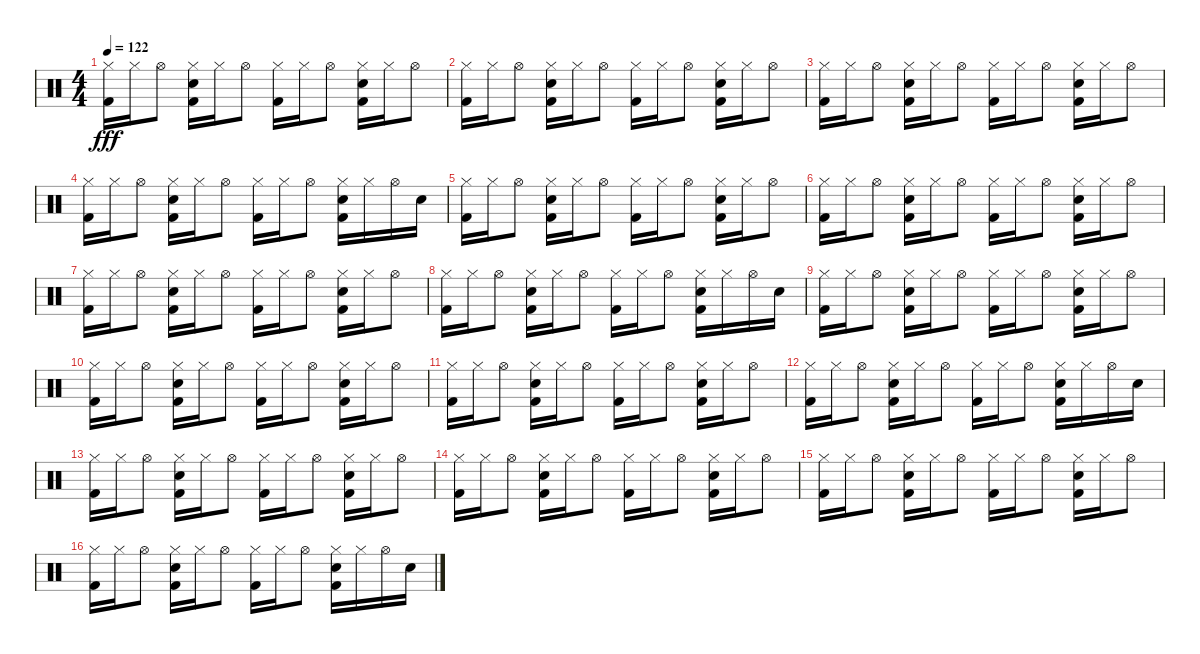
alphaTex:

\track "" {mute instrument percussion}
\staff {score}
\articulation defaults
\ts (4 4)
\tempo 122
\clef neutral
\ks c
("Kick (hit) 2" "Hi-Hat (closed)").16{dy fff} "Hi-Hat (closed)".16 "Hi-Hat (open)".8 ("Kick (hit) 2" "Snare (hit) 2" "Hi-Hat (closed)").16 "Hi-Hat (closed)".16 "Hi-Hat (open)".8 ("Kick (hit) 2" "Hi-Hat (closed)").16 "Hi-Hat (closed)".16 "Hi-Hat (open)".8 ("Kick (hit) 2" "Snare (hit) 2" "Hi-Hat (closed)").16 "Hi-Hat (closed)".16 "Hi-Hat (open)".8 |
("Kick (hit) 2" "Hi-Hat (closed)").16 "Hi-Hat (closed)".16 "Hi-Hat (open)".8 ("Kick (hit) 2" "Snare (hit) 2" "Hi-Hat (closed)").16 "Hi-Hat (closed)".16 "Hi-Hat (open)".8 ("Kick (hit) 2" "Hi-Hat (closed)").16 "Hi-Hat (closed)".16 "Hi-Hat (open)".8 ("Kick (hit) 2" "Snare (hit) 2" "Hi-Hat (closed)").16 "Hi-Hat (closed)".16 "Hi-Hat (open)".8 |
("Kick (hit) 2" "Hi-Hat (closed)").16 "Hi-Hat (closed)".16 "Hi-Hat (open)".8 ("Kick (hit) 2" "Snare (hit) 2" "Hi-Hat (closed)").16 "Hi-Hat (closed)".16 "Hi-Hat (open)".8 ("Kick (hit) 2" "Hi-Hat (closed)").16 "Hi-Hat (closed)".16 "Hi-Hat (open)".8 ("Kick (hit) 2" "Snare (hit) 2" "Hi-Hat (closed)").16 "Hi-Hat (closed)".16 "Hi-Hat (open)".8 |
("Kick (hit) 2" "Hi-Hat (closed)").16 "Hi-Hat (closed)".16 "Hi-Hat (open)".8 ("Kick (hit) 2" "Snare (hit) 2" "Hi-Hat (closed)").16 "Hi-Hat (closed)".16 "Hi-Hat (open)".8 ("Kick (hit) 2" "Hi-Hat (closed)").16 "Hi-Hat (closed)".16 "Hi-Hat (open)".8 ("Kick (hit) 2" "Snare (hit) 2" "Hi-Hat (closed)").16 "Hi-Hat (closed)".16 "Hi-Hat (open)".16 "Snare (hit) 2".16 |
("Kick (hit) 2" "Hi-Hat (closed)").16 "Hi-Hat (closed)".16 "Hi-Hat (open)".8 ("Kick (hit) 2" "Snare (hit) 2" "Hi-Hat (closed)").16 "Hi-Hat (closed)".16 "Hi-Hat (open)".8 ("Kick (hit) 2" "Hi-Hat (closed)").16 "Hi-Hat (closed)".16 "Hi-Hat (open)".8 ("Kick (hit) 2" "Snare (hit) 2" "Hi-Hat (closed)").16 "Hi-Hat (closed)".16 "Hi-Hat (open)".8 |
("Kick (hit) 2" "Hi-Hat (closed)").16 "Hi-Hat (closed)".16 "Hi-Hat (open)".8 ("Kick (hit) 2" "Snare (hit) 2" "Hi-Hat (closed)").16 "Hi-Hat (closed)".16 "Hi-Hat (open)".8 ("Kick (hit) 2" "Hi-Hat (closed)").16 "Hi-Hat (closed)".16 "Hi-Hat (open)".8 ("Kick (hit) 2" "Snare (hit) 2" "Hi-Hat (closed)").16 "Hi-Hat (closed)".16 "Hi-Hat (open)".8 |
("Kick (hit) 2" "Hi-Hat (closed)").16 "Hi-Hat (closed)".16 "Hi-Hat (open)".8 ("Kick (hit) 2" "Snare (hit) 2" "Hi-Hat (closed)").16 "Hi-Hat (closed)".16 "Hi-Hat (open)".8 ("Kick (hit) 2" "Hi-Hat (closed)").16 "Hi-Hat (closed)".16 "Hi-Hat (open)".8 ("Kick (hit) 2" "Snare (hit) 2" "Hi-Hat (closed)").16 "Hi-Hat (closed)".16 "Hi-Hat (open)".8 |
("Kick (hit) 2" "Hi-Hat (closed)").16 "Hi-Hat (closed)".16 "Hi-Hat (open)".8 ("Kick (hit) 2" "Snare (hit) 2" "Hi-Hat (closed)").16 "Hi-Hat (closed)".16 "Hi-Hat (open)".8 ("Kick (hit) 2" "Hi-Hat (closed)").16 "Hi-Hat (closed)".16 "Hi-Hat (open)".8 ("Kick (hit) 2" "Snare (hit) 2" "Hi-Hat (closed)").16 "Hi-Hat (closed)".16 "Hi-Hat (open)".16 "Snare (hit) 2".16 |
("Kick (hit) 2" "Hi-Hat (closed)").16 "Hi-Hat (closed)".16 "Hi-Hat (open)".8 ("Kick (hit) 2" "Snare (hit) 2" "Hi-Hat (closed)").16 "Hi-Hat (closed)".16 "Hi-Hat (open)".8 ("Kick (hit) 2" "Hi-Hat (closed)").16 "Hi-Hat (closed)".16 "Hi-Hat (open)".8 ("Kick (hit) 2" "Snare (hit) 2" "Hi-Hat (closed)").16 "Hi-Hat (closed)".16 "Hi-Hat (open)".8 |
("Kick (hit) 2" "Hi-Hat (closed)").16 "Hi-Hat (closed)".16 "Hi-Hat (open)".8 ("Kick (hit) 2" "Snare (hit) 2" "Hi-Hat (closed)").16 "Hi-Hat (closed)".16 "Hi-Hat (open)".8 ("Kick (hit) 2" "Hi-Hat (closed)").16 "Hi-Hat (closed)".16 "Hi-Hat (open)".8 ("Kick (hit) 2" "Snare (hit) 2" "Hi-Hat (closed)").16 "Hi-Hat (closed)".16 "Hi-Hat (open)".8 |
("Kick (hit) 2" "Hi-Hat (closed)").16 "Hi-Hat (closed)".16 "Hi-Hat (open)".8 ("Kick (hit) 2" "Snare (hit) 2" "Hi-Hat (closed)").16 "Hi-Hat (closed)".16 "Hi-Hat (open)".8 ("Kick (hit) 2" "Hi-Hat (closed)").16 "Hi-Hat (closed)".16 "Hi-Hat (open)".8 ("Kick (hit) 2" "Snare (hit) 2" "Hi-Hat (closed)").16 "Hi-Hat (closed)".16 "Hi-Hat (open)".8 |
("Kick (hit) 2" "Hi-Hat (closed)").16 "Hi-Hat (closed)".16 "Hi-Hat (open)".8 ("Kick (hit) 2" "Snare (hit) 2" "Hi-Hat (closed)").16 "Hi-Hat (closed)".16 "Hi-Hat (open)".8 ("Kick (hit) 2" "Hi-Hat (closed)").16 "Hi-Hat (closed)".16 "Hi-Hat (open)".8 ("Kick (hit) 2" "Snare (hit) 2" "Hi-Hat (closed)").16 "Hi-Hat (closed)".16 "Hi-Hat (open)".16 "Snare (hit) 2".16 |
("Kick (hit) 2" "Hi-Hat (closed)").16 "Hi-Hat (closed)".16 "Hi-Hat (open)".8 ("Kick (hit) 2" "Snare (hit) 2" "Hi-Hat (closed)").16 "Hi-Hat (closed)".16 "Hi-Hat (open)".8 ("Kick (hit) 2" "Hi-Hat (closed)").16 "Hi-Hat (closed)".16 "Hi-Hat (open)".8 ("Kick (hit) 2" "Snare (hit) 2" "Hi-Hat (closed)").16 "Hi-Hat (closed)".16 "Hi-Hat (open)".8 |
("Kick (hit) 2" "Hi-Hat (closed)").16 "Hi-Hat (closed)".16 "Hi-Hat (open)".8 ("Kick (hit) 2" "Snare (hit) 2" "Hi-Hat (closed)").16 "Hi-Hat (closed)".16 "Hi-Hat (open)".8 ("Kick (hit) 2" "Hi-Hat (closed)").16 "Hi-Hat (closed)".16 "Hi-Hat (open)".8 ("Kick (hit) 2" "Snare (hit) 2" "Hi-Hat (closed)").16 "Hi-Hat (closed)".16 "Hi-Hat (open)".8 |
("Kick (hit) 2" "Hi-Hat (closed)").16 "Hi-Hat (closed)".16 "Hi-Hat (open)".8 ("Kick (hit) 2" "Snare (hit) 2" "Hi-Hat (closed)").16 "Hi-Hat (closed)".16 "Hi-Hat (open)".8 ("Kick (hit) 2" "Hi-Hat (closed)").16 "Hi-Hat (closed)".16 "Hi-Hat (open)".8 ("Kick (hit) 2" "Snare (hit) 2" "Hi-Hat (closed)").16 "Hi-Hat (closed)".16 "Hi-Hat (open)".8 |
("Kick (hit) 2" "Hi-Hat (closed)").16 "Hi-Hat (closed)".16 "Hi-Hat (open)".8 ("Kick (hit) 2" "Snare (hit) 2" "Hi-Hat (closed)").16 "Hi-Hat (closed)".16 "Hi-Hat (open)".8 ("Kick (hit) 2" "Hi-Hat (closed)").16 "Hi-Hat (closed)".16 "Hi-Hat (open)".8 ("Kick (hit) 2" "Snare (hit) 2" "Hi-Hat (closed)").16 "Hi-Hat (closed)".16 "Hi-Hat (open)".16 "Snare (hit) 2".16
